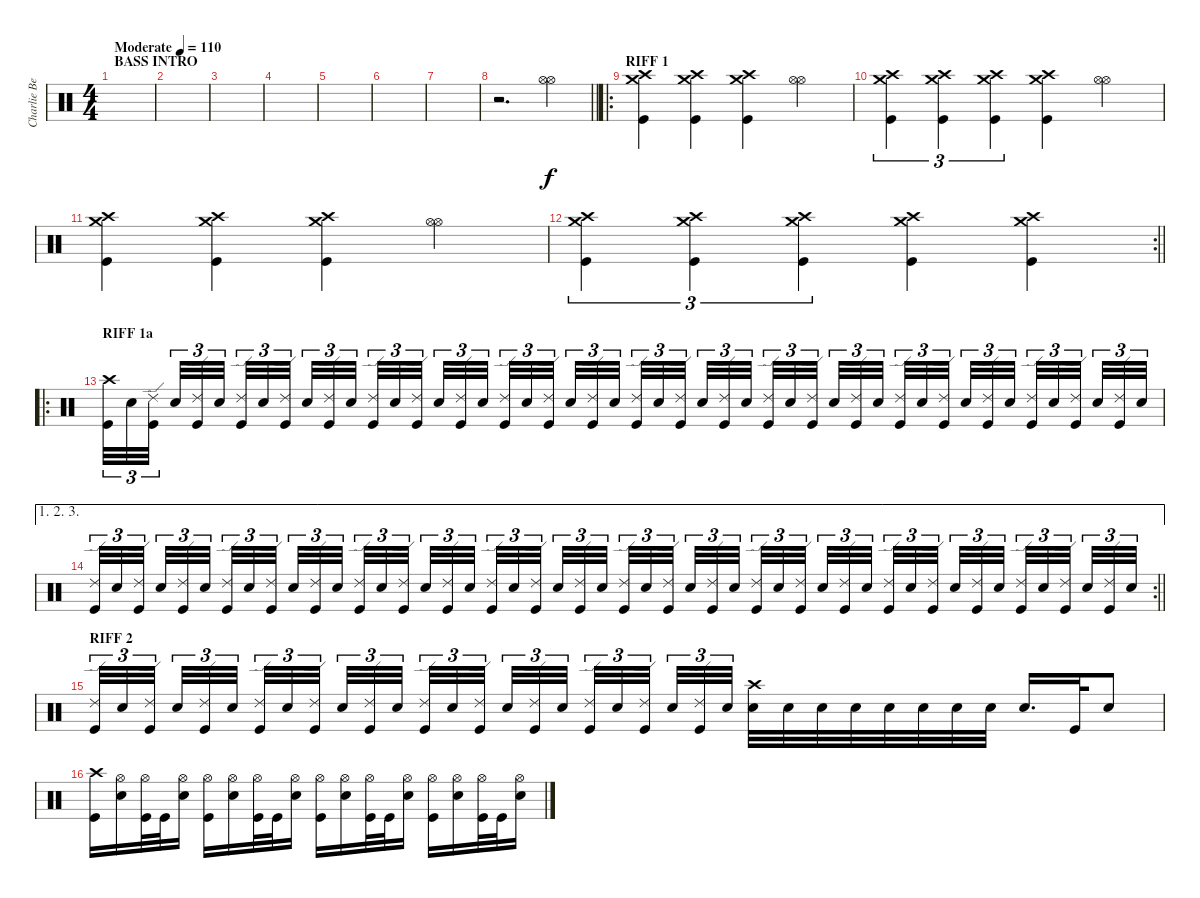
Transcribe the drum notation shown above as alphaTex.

\track ("Charlie Benante" "Charlie Be") {instrument percussion}
\staff {score}
\articulation defaults
\ts (4 4)
\section ("" "BASS INTRO")
\tempo (110 "Moderate")
\clef neutral
\ks c
|
|
|
|
|
|
|
\barLineRight lightlight
r.2{d} ("Hi-Hat (open)" "Hi-Hat (open)").4 |
\ro
\section ("" "RIFF 1")
("Crash high (hit)" "Crash medium (hit)" "Kick (hit)").4 ("Crash high (hit)" "Crash medium (hit)" "Kick (hit)").4 ("Crash high (hit)" "Crash medium (hit)" "Kick (hit)").4 ("Hi-Hat (open)" "Hi-Hat (open)").4 |
("Crash high (hit)" "Crash medium (hit)" "Kick (hit)").4{tu (3 2)} ("Crash high (hit)" "Crash medium (hit)" "Kick (hit)").4{tu (3 2)} ("Crash high (hit)" "Crash medium (hit)" "Kick (hit)").4{tu (3 2)} ("Crash high (hit)" "Crash medium (hit)" "Kick (hit)").4 ("Hi-Hat (open)" "Hi-Hat (open)").4 |
("Crash high (hit)" "Crash medium (hit)" "Kick (hit)").4 ("Crash high (hit)" "Crash medium (hit)" "Kick (hit)").4 ("Crash high (hit)" "Crash medium (hit)" "Kick (hit)").4 ("Hi-Hat (open)" "Hi-Hat (open)").4 |
\rc 2
\barLineRight lightlight
("Crash high (hit)" "Crash medium (hit)" "Kick (hit)").4{tu (3 2)} ("Crash high (hit)" "Crash medium (hit)" "Kick (hit)").4{tu (3 2)} ("Crash high (hit)" "Crash medium (hit)" "Kick (hit)").4{tu (3 2)} ("Crash high (hit)" "Crash medium (hit)" "Kick (hit)").4 ("Crash high (hit)" "Crash medium (hit)" "Kick (hit)").4 |
\ro
\section ("" "RIFF 1a")
("Crash high (hit)" "Kick (hit)").32{tu (3 2)} "Snare (hit) 2".32{tu (3 2)} ("Ride (edge) 2" "Kick (hit)").32{tu (3 2) beam splitsecondary} "Snare (hit) 2".32{tu (3 2)} ("Ride (edge) 2" "Kick (hit)").32{tu (3 2)} "Snare (hit) 2".32{tu (3 2) beam splitsecondary} ("Ride (edge) 2" "Kick (hit)").32{tu (3 2)} "Snare (hit) 2".32{tu (3 2)} ("Ride (edge) 2" "Kick (hit)").32{tu (3 2) beam splitsecondary} "Snare (hit) 2".32{tu (3 2)} ("Ride (edge) 2" "Kick (hit)").32{tu (3 2)} "Snare (hit) 2".32{tu (3 2)} ("Ride (edge) 2" "Kick (hit)").32{tu (3 2)} "Snare (hit) 2".32{tu (3 2)} ("Ride (edge) 2" "Kick (hit)").32{tu (3 2) beam splitsecondary} "Snare (hit) 2".32{tu (3 2)} ("Ride (edge) 2" "Kick (hit)").32{tu (3 2)} "Snare (hit) 2".32{tu (3 2) beam splitsecondary} ("Ride (edge) 2" "Kick (hit)").32{tu (3 2)} "Snare (hit) 2".32{tu (3 2)} ("Ride (edge) 2" "Kick (hit)").32{tu (3 2) beam splitsecondary} "Snare (hit) 2".32{tu (3 2)} ("Ride (edge) 2" "Kick (hit)").32{tu (3 2)} "Snare (hit) 2".32{tu (3 2)} ("Ride (edge) 2" "Kick (hit)").32{tu (3 2)} "Snare (hit) 2".32{tu (3 2)} ("Ride (edge) 2" "Kick (hit)").32{tu (3 2) beam splitsecondary} "Snare (hit) 2".32{tu (3 2)} ("Ride (edge) 2" "Kick (hit)").32{tu (3 2)} "Snare (hit) 2".32{tu (3 2) beam splitsecondary} ("Ride (edge) 2" "Kick (hit)").32{tu (3 2)} "Snare (hit) 2".32{tu (3 2)} ("Ride (edge) 2" "Kick (hit)").32{tu (3 2) beam splitsecondary} "Snare (hit) 2".32{tu (3 2)} ("Ride (edge) 2" "Kick (hit)").32{tu (3 2)} "Snare (hit) 2".32{tu (3 2)} ("Ride (edge) 2" "Kick (hit)").32{tu (3 2)} "Snare (hit) 2".32{tu (3 2)} ("Ride (edge) 2" "Kick (hit)").32{tu (3 2) beam splitsecondary} "Snare (hit) 2".32{tu (3 2)} ("Ride (edge) 2" "Kick (hit)").32{tu (3 2)} "Snare (hit) 2".32{tu (3 2) beam splitsecondary} ("Ride (edge) 2" "Kick (hit)").32{tu (3 2)} "Snare (hit) 2".32{tu (3 2)} ("Ride (edge) 2" "Kick (hit)").32{tu (3 2) beam splitsecondary} "Snare (hit) 2".32{tu (3 2)} ("Ride (edge) 2" "Kick (hit)").32{tu (3 2)} "Snare (hit) 2".32{tu (3 2)} |
\ae (1 2 3)
\rc 2
\barLineRight lightlight
("Ride (edge) 2" "Kick (hit)").32{tu (3 2)} "Snare (hit) 2".32{tu (3 2)} ("Ride (edge) 2" "Kick (hit)").32{tu (3 2) beam splitsecondary} "Snare (hit) 2".32{tu (3 2)} ("Ride (edge) 2" "Kick (hit)").32{tu (3 2)} "Snare (hit) 2".32{tu (3 2) beam splitsecondary} ("Ride (edge) 2" "Kick (hit)").32{tu (3 2)} "Snare (hit) 2".32{tu (3 2)} ("Ride (edge) 2" "Kick (hit)").32{tu (3 2) beam splitsecondary} "Snare (hit) 2".32{tu (3 2)} ("Ride (edge) 2" "Kick (hit)").32{tu (3 2)} "Snare (hit) 2".32{tu (3 2)} ("Ride (edge) 2" "Kick (hit)").32{tu (3 2)} "Snare (hit) 2".32{tu (3 2)} ("Ride (edge) 2" "Kick (hit)").32{tu (3 2) beam splitsecondary} "Snare (hit) 2".32{tu (3 2)} ("Ride (edge) 2" "Kick (hit)").32{tu (3 2)} "Snare (hit) 2".32{tu (3 2) beam splitsecondary} ("Ride (edge) 2" "Kick (hit)").32{tu (3 2)} "Snare (hit) 2".32{tu (3 2)} ("Ride (edge) 2" "Kick (hit)").32{tu (3 2) beam splitsecondary} "Snare (hit) 2".32{tu (3 2)} ("Ride (edge) 2" "Kick (hit)").32{tu (3 2)} "Snare (hit) 2".32{tu (3 2)} ("Ride (edge) 2" "Kick (hit)").32{tu (3 2)} "Snare (hit) 2".32{tu (3 2)} ("Ride (edge) 2" "Kick (hit)").32{tu (3 2) beam splitsecondary} "Snare (hit) 2".32{tu (3 2)} ("Ride (edge) 2" "Kick (hit)").32{tu (3 2)} "Snare (hit) 2".32{tu (3 2) beam splitsecondary} ("Ride (edge) 2" "Kick (hit)").32{tu (3 2)} "Snare (hit) 2".32{tu (3 2)} ("Ride (edge) 2" "Kick (hit)").32{tu (3 2) beam splitsecondary} "Snare (hit) 2".32{tu (3 2)} ("Ride (edge) 2" "Kick (hit)").32{tu (3 2)} "Snare (hit) 2".32{tu (3 2)} ("Ride (edge) 2" "Kick (hit)").32{tu (3 2)} "Snare (hit) 2".32{tu (3 2)} ("Ride (edge) 2" "Kick (hit)").32{tu (3 2) beam splitsecondary} "Snare (hit) 2".32{tu (3 2)} ("Ride (edge) 2" "Kick (hit)").32{tu (3 2)} "Snare (hit) 2".32{tu (3 2) beam splitsecondary} ("Ride (edge) 2" "Kick (hit)").32{tu (3 2)} "Snare (hit) 2".32{tu (3 2)} ("Ride (edge) 2" "Kick (hit)").32{tu (3 2) beam splitsecondary} "Snare (hit) 2".32{tu (3 2)} ("Ride (edge) 2" "Kick (hit)").32{tu (3 2)} "Snare (hit) 2".32{tu (3 2)} |
\section ("" "RIFF 2")
("Ride (edge) 2" "Kick (hit)").32{tu (3 2)} "Snare (hit) 2".32{tu (3 2)} ("Ride (edge) 2" "Kick (hit)").32{tu (3 2) beam splitsecondary} "Snare (hit) 2".32{tu (3 2)} ("Ride (edge) 2" "Kick (hit)").32{tu (3 2)} "Snare (hit) 2".32{tu (3 2) beam splitsecondary} ("Ride (edge) 2" "Kick (hit)").32{tu (3 2)} "Snare (hit) 2".32{tu (3 2)} ("Ride (edge) 2" "Kick (hit)").32{tu (3 2) beam splitsecondary} "Snare (hit) 2".32{tu (3 2)} ("Ride (edge) 2" "Kick (hit)").32{tu (3 2)} "Snare (hit) 2".32{tu (3 2)} ("Ride (edge) 2" "Kick (hit)").32{tu (3 2)} "Snare (hit) 2".32{tu (3 2)} ("Ride (edge) 2" "Kick (hit)").32{tu (3 2) beam splitsecondary} "Snare (hit) 2".32{tu (3 2)} ("Ride (edge) 2" "Kick (hit)").32{tu (3 2)} "Snare (hit) 2".32{tu (3 2) beam splitsecondary} ("Ride (edge) 2" "Kick (hit)").32{tu (3 2)} "Snare (hit) 2".32{tu (3 2)} ("Ride (edge) 2" "Kick (hit)").32{tu (3 2) beam splitsecondary} "Snare (hit) 2".32{tu (3 2)} ("Ride (edge) 2" "Kick (hit)").32{tu (3 2)} "Snare (hit) 2".32{tu (3 2)} ("Crash high (hit)" "Snare (hit) 2").32 "Snare (hit) 2".32 "Snare (hit) 2".32 "Snare (hit) 2".32 "Snare (hit) 2".32 "Snare (hit) 2".32 "Snare (hit) 2".32 "Snare (hit) 2".32 "Snare (hit) 2".16{d} "Kick (hit)".32 "Snare (hit) 2".8 |
("Crash high (hit)" "Kick (hit)").16 ("Hi-Hat (open)" "Snare (hit) 2").16 ("Hi-Hat (open)" "Kick (hit)").32 "Kick (hit)".32 ("Hi-Hat (open)" "Snare (hit) 2").16 ("Hi-Hat (open)" "Kick (hit)").16 ("Hi-Hat (open)" "Snare (hit) 2").16 ("Hi-Hat (open)" "Kick (hit)").32 "Kick (hit)".32 ("Hi-Hat (open)" "Snare (hit) 2").16 ("Hi-Hat (open)" "Kick (hit)").16 ("Hi-Hat (open)" "Snare (hit) 2").16 ("Hi-Hat (open)" "Kick (hit)").32 "Kick (hit)".32 ("Hi-Hat (open)" "Snare (hit) 2").16 ("Hi-Hat (open)" "Kick (hit)").16 ("Hi-Hat (open)" "Snare (hit) 2").16 ("Hi-Hat (open)" "Kick (hit)").32 "Kick (hit)".32 ("Hi-Hat (open)" "Snare (hit) 2").16
